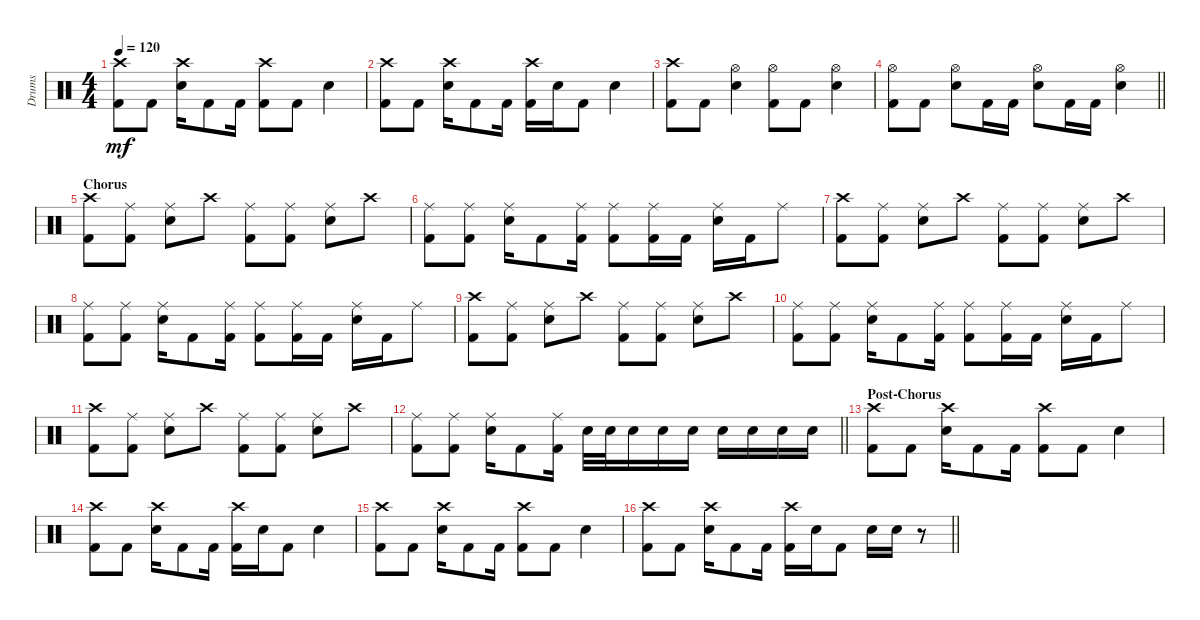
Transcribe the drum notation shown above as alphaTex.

\track ("Drums" "Drums") {instrument percussion}
\staff {score}
\articulation defaults
\ts (4 4)
\tempo 120
\clef neutral
\ks c
("Crash high (hit)" "Kick (hit) 2").8{dy mf} "Kick (hit) 2".8 ("Crash high (hit)" "Electric Snare (hit)").16 "Kick (hit) 2".8 "Kick (hit) 2".16 ("Crash high (hit)" "Kick (hit) 2").8 "Kick (hit) 2".8 "Electric Snare (hit)".4 |
("Crash high (hit)" "Kick (hit) 2").8 "Kick (hit) 2".8 ("Crash high (hit)" "Electric Snare (hit)").16 "Kick (hit) 2".8 "Kick (hit) 2".16 ("Crash high (hit)" "Kick (hit) 2").16 "Electric Snare (hit)".16 "Kick (hit) 2".8 "Electric Snare (hit)".4 |
("Crash high (hit)" "Kick (hit) 2").8 "Kick (hit) 2".8 ("Hi-Hat (open)" "Electric Snare (hit)").4 ("Hi-Hat (open)" "Kick (hit) 2").8 "Kick (hit) 2".8 ("Hi-Hat (open)" "Electric Snare (hit)").4 |
\barLineRight lightlight
("Hi-Hat (open)" "Kick (hit) 2").8 "Kick (hit) 2".8 ("Hi-Hat (open)" "Electric Snare (hit)").8 "Kick (hit) 2".16 "Kick (hit) 2".16 ("Hi-Hat (open)" "Electric Snare (hit)").8 "Kick (hit) 2".16 "Kick (hit) 2".16 ("Hi-Hat (open)" "Electric Snare (hit)").4 |
\section ("" "Chorus")
("Crash high (hit)" "Kick (hit) 2").8 ("Ride (middle)" "Kick (hit) 2").8 ("Ride (middle)" "Electric Snare (hit)").8 "Crash high (hit)".8 ("Ride (middle)" "Kick (hit) 2").8 ("Ride (middle)" "Kick (hit) 2").8 ("Ride (middle)" "Electric Snare (hit)").8 "Crash high (hit)".8 |
("Ride (middle)" "Kick (hit) 2").8 ("Ride (middle)" "Kick (hit) 2").8 ("Ride (middle)" "Electric Snare (hit)").16 "Kick (hit) 2".8 ("Ride (middle)" "Kick (hit) 2").16 ("Ride (middle)" "Kick (hit) 2").8 ("Ride (middle)" "Kick (hit) 2").16 "Kick (hit) 2".16 ("Ride (middle)" "Electric Snare (hit)").16 "Kick (hit) 2".16 "Ride (middle)".8 |
("Crash high (hit)" "Kick (hit) 2").8 ("Ride (middle)" "Kick (hit) 2").8 ("Ride (middle)" "Electric Snare (hit)").8 "Crash high (hit)".8 ("Ride (middle)" "Kick (hit) 2").8 ("Ride (middle)" "Kick (hit) 2").8 ("Ride (middle)" "Electric Snare (hit)").8 "Crash high (hit)".8 |
("Ride (middle)" "Kick (hit) 2").8 ("Ride (middle)" "Kick (hit) 2").8 ("Ride (middle)" "Electric Snare (hit)").16 "Kick (hit) 2".8 ("Ride (middle)" "Kick (hit) 2").16 ("Ride (middle)" "Kick (hit) 2").8 ("Ride (middle)" "Kick (hit) 2").16 "Kick (hit) 2".16 ("Ride (middle)" "Electric Snare (hit)").16 "Kick (hit) 2".16 "Ride (middle)".8 |
("Crash high (hit)" "Kick (hit) 2").8 ("Ride (middle)" "Kick (hit) 2").8 ("Ride (middle)" "Electric Snare (hit)").8 "Crash high (hit)".8 ("Ride (middle)" "Kick (hit) 2").8 ("Ride (middle)" "Kick (hit) 2").8 ("Ride (middle)" "Electric Snare (hit)").8 "Crash high (hit)".8 |
("Ride (middle)" "Kick (hit) 2").8 ("Ride (middle)" "Kick (hit) 2").8 ("Ride (middle)" "Electric Snare (hit)").16 "Kick (hit) 2".8 ("Ride (middle)" "Kick (hit) 2").16 ("Ride (middle)" "Kick (hit) 2").8 ("Ride (middle)" "Kick (hit) 2").16 "Kick (hit) 2".16 ("Ride (middle)" "Electric Snare (hit)").16 "Kick (hit) 2".16 "Ride (middle)".8 |
("Crash high (hit)" "Kick (hit) 2").8 ("Ride (middle)" "Kick (hit) 2").8 ("Ride (middle)" "Electric Snare (hit)").8 "Crash high (hit)".8 ("Ride (middle)" "Kick (hit) 2").8 ("Ride (middle)" "Kick (hit) 2").8 ("Ride (middle)" "Electric Snare (hit)").8 "Crash high (hit)".8 |
\barLineRight lightlight
("Ride (middle)" "Kick (hit) 2").8 ("Ride (middle)" "Kick (hit) 2").8 ("Ride (middle)" "Electric Snare (hit)").16 "Kick (hit) 2".8 ("Ride (middle)" "Kick (hit) 2").16 "Electric Snare (hit)".32 "Electric Snare (hit)".32 "Electric Snare (hit)".16 "Electric Snare (hit)".16 "Electric Snare (hit)".16 "Electric Snare (hit)".16 "Electric Snare (hit)".16 "Electric Snare (hit)".16 "Electric Snare (hit)".16 |
\section ("" "Post-Chorus")
("Crash high (hit)" "Kick (hit) 2").8 "Kick (hit) 2".8 ("Crash high (hit)" "Electric Snare (hit)").16 "Kick (hit) 2".8 "Kick (hit) 2".16 ("Crash high (hit)" "Kick (hit) 2").8 "Kick (hit) 2".8 "Electric Snare (hit)".4 |
("Crash high (hit)" "Kick (hit) 2").8 "Kick (hit) 2".8 ("Crash high (hit)" "Electric Snare (hit)").16 "Kick (hit) 2".8 "Kick (hit) 2".16 ("Crash high (hit)" "Kick (hit) 2").16 "Electric Snare (hit)".16 "Kick (hit) 2".8 "Electric Snare (hit)".4 |
("Crash high (hit)" "Kick (hit) 2").8 "Kick (hit) 2".8 ("Crash high (hit)" "Electric Snare (hit)").16 "Kick (hit) 2".8 "Kick (hit) 2".16 ("Crash high (hit)" "Kick (hit) 2").8 "Kick (hit) 2".8 "Electric Snare (hit)".4 |
\barLineRight lightlight
("Crash high (hit)" "Kick (hit) 2").8 "Kick (hit) 2".8 ("Crash high (hit)" "Electric Snare (hit)").16 "Kick (hit) 2".8 "Kick (hit) 2".16 ("Crash high (hit)" "Kick (hit) 2").16 "Electric Snare (hit)".16 "Kick (hit) 2".8 "Electric Snare (hit)".16 "Electric Snare (hit)".16 r.8
